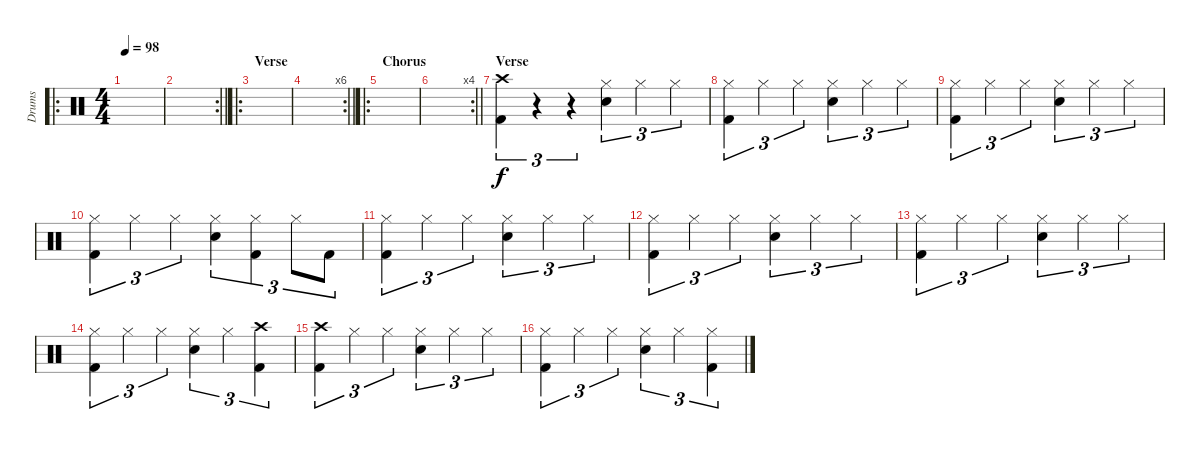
\track ("Drums" "Drums") {instrument percussion}
\staff {score}
\articulation defaults
\ro
\ts (4 4)
\tempo 98
\clef neutral
\ks c
|
\rc 2
\barLineRight lightlight
|
\ro
\section ("" "Verse")
|
\rc 6
\barLineRight lightlight
|
\ro
\section ("" "Chorus")
|
\rc 4
\barLineRight lightlight
|
\section ("" "Verse")
("Crash high (hit)" "Kick (hit) 2").4{tu (3 2)} r.4{tu (3 2)} r.4{tu (3 2)} ("Hi-Hat (closed)" "Electric Snare (hit)").4{tu (3 2)} "Hi-Hat (closed)".4{tu (3 2)} "Hi-Hat (closed)".4{tu (3 2)} |
("Hi-Hat (closed)" "Kick (hit) 2").4{tu (3 2)} "Hi-Hat (closed)".4{tu (3 2)} "Hi-Hat (closed)".4{tu (3 2)} ("Hi-Hat (closed)" "Electric Snare (hit)").4{tu (3 2)} "Hi-Hat (closed)".4{tu (3 2)} "Hi-Hat (closed)".4{tu (3 2)} |
("Hi-Hat (closed)" "Kick (hit) 2").4{tu (3 2)} "Hi-Hat (closed)".4{tu (3 2)} "Hi-Hat (closed)".4{tu (3 2)} ("Hi-Hat (closed)" "Electric Snare (hit)").4{tu (3 2)} "Hi-Hat (closed)".4{tu (3 2)} "Hi-Hat (closed)".4{tu (3 2)} |
("Hi-Hat (closed)" "Kick (hit) 2").4{tu (3 2)} "Hi-Hat (closed)".4{tu (3 2)} "Hi-Hat (closed)".4{tu (3 2)} ("Hi-Hat (closed)" "Electric Snare (hit)").4{tu (3 2)} ("Hi-Hat (closed)" "Kick (hit) 2").4{tu (3 2)} "Hi-Hat (closed)".8{tu (3 2)} "Kick (hit) 2".8{tu (3 2)} |
("Hi-Hat (closed)" "Kick (hit) 2").4{tu (3 2)} "Hi-Hat (closed)".4{tu (3 2)} "Hi-Hat (closed)".4{tu (3 2)} ("Hi-Hat (closed)" "Electric Snare (hit)").4{tu (3 2)} "Hi-Hat (closed)".4{tu (3 2)} "Hi-Hat (closed)".4{tu (3 2)} |
("Hi-Hat (closed)" "Kick (hit) 2").4{tu (3 2)} "Hi-Hat (closed)".4{tu (3 2)} "Hi-Hat (closed)".4{tu (3 2)} ("Hi-Hat (closed)" "Electric Snare (hit)").4{tu (3 2)} "Hi-Hat (closed)".4{tu (3 2)} "Hi-Hat (closed)".4{tu (3 2)} |
("Hi-Hat (closed)" "Kick (hit) 2").4{tu (3 2)} "Hi-Hat (closed)".4{tu (3 2)} "Hi-Hat (closed)".4{tu (3 2)} ("Hi-Hat (closed)" "Electric Snare (hit)").4{tu (3 2)} "Hi-Hat (closed)".4{tu (3 2)} "Hi-Hat (closed)".4{tu (3 2)} |
("Hi-Hat (closed)" "Kick (hit) 2").4{tu (3 2)} "Hi-Hat (closed)".4{tu (3 2)} "Hi-Hat (closed)".4{tu (3 2)} ("Hi-Hat (closed)" "Electric Snare (hit)").4{tu (3 2)} "Hi-Hat (closed)".4{tu (3 2)} ("Crash high (hit)" "Kick (hit) 2").4{tu (3 2)} |
("Crash high (hit)" "Kick (hit) 2").4{tu (3 2)} "Hi-Hat (closed)".4{tu (3 2)} "Hi-Hat (closed)".4{tu (3 2)} ("Hi-Hat (closed)" "Electric Snare (hit)").4{tu (3 2)} "Hi-Hat (closed)".4{tu (3 2)} "Hi-Hat (closed)".4{tu (3 2)} |
("Hi-Hat (closed)" "Kick (hit) 2").4{tu (3 2)} "Hi-Hat (closed)".4{tu (3 2)} "Hi-Hat (closed)".4{tu (3 2)} ("Hi-Hat (closed)" "Electric Snare (hit)").4{tu (3 2)} "Hi-Hat (closed)".4{tu (3 2)} ("Hi-Hat (closed)" "Kick (hit) 2").4{tu (3 2)}
